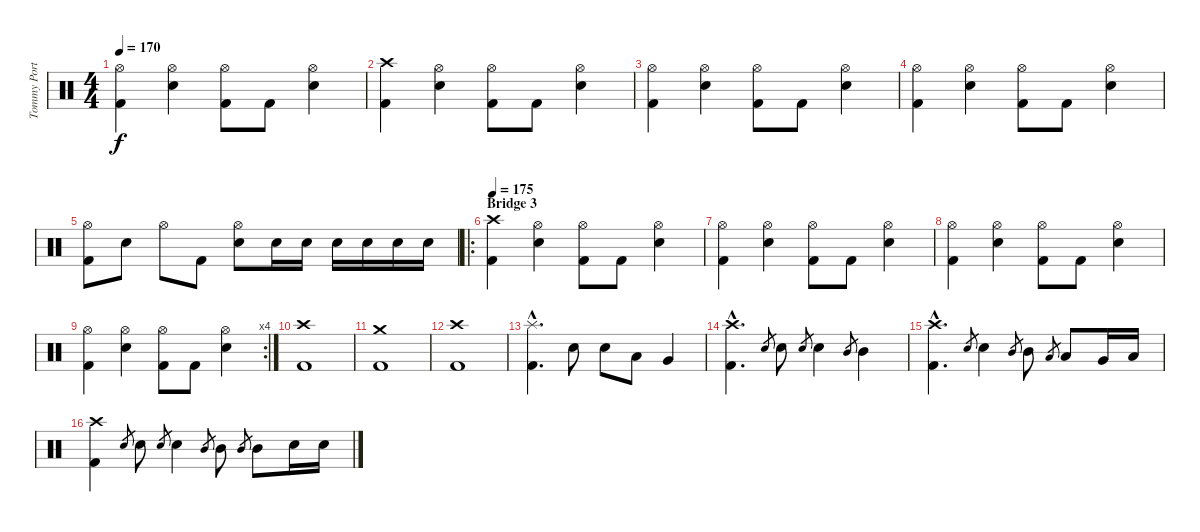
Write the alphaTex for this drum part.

\track ("Tommy Portimo" "Tommy Port") {instrument percussion}
\staff {score}
\articulation defaults
\ts (4 4)
\tempo 170
\clef neutral
\ks c
("Hi-Hat (open)" "Kick (hit) 2").4{dy f} ("Hi-Hat (open)" "Snare (hit) 2").4 ("Hi-Hat (open)" "Kick (hit) 2").8 "Kick (hit) 2".8 ("Hi-Hat (open)" "Snare (hit) 2").4 |
("Crash high (hit)" "Kick (hit) 2").4 ("Hi-Hat (open)" "Snare (hit) 2").4 ("Hi-Hat (open)" "Kick (hit) 2").8 "Kick (hit) 2".8 ("Hi-Hat (open)" "Snare (hit) 2").4 |
("Hi-Hat (open)" "Kick (hit) 2").4 ("Hi-Hat (open)" "Snare (hit) 2").4 ("Hi-Hat (open)" "Kick (hit) 2").8 "Kick (hit) 2".8 ("Hi-Hat (open)" "Snare (hit) 2").4 |
("Hi-Hat (open)" "Kick (hit) 2").4 ("Hi-Hat (open)" "Snare (hit) 2").4 ("Hi-Hat (open)" "Kick (hit) 2").8 "Kick (hit) 2".8 ("Hi-Hat (open)" "Snare (hit) 2").4 |
("Hi-Hat (open)" "Kick (hit) 2").8 "Snare (hit) 2".8 "Hi-Hat (open)".8 "Kick (hit) 2".8 ("Hi-Hat (open)" "Snare (hit) 2").8 "Snare (hit) 2".16 "Snare (hit) 2".16 "Snare (hit) 2".16 "Snare (hit) 2".16 "Snare (hit) 2".16 "Snare (hit) 2".16 |
\ro
\section ("" "Bridge 3")
\tempo 175
("Crash high (hit)" "Kick (hit) 2").4 ("Hi-Hat (open)" "Snare (hit) 2").4 ("Hi-Hat (open)" "Kick (hit) 2").8 "Kick (hit) 2".8 ("Hi-Hat (open)" "Snare (hit) 2").4 |
("Hi-Hat (open)" "Kick (hit) 2").4 ("Hi-Hat (open)" "Snare (hit) 2").4 ("Hi-Hat (open)" "Kick (hit) 2").8 "Kick (hit) 2".8 ("Hi-Hat (open)" "Snare (hit) 2").4 |
("Hi-Hat (open)" "Kick (hit) 2").4 ("Hi-Hat (open)" "Snare (hit) 2").4 ("Hi-Hat (open)" "Kick (hit) 2").8 "Kick (hit) 2".8 ("Hi-Hat (open)" "Snare (hit) 2").4 |
\rc 4
("Hi-Hat (open)" "Kick (hit) 2").4 ("Hi-Hat (open)" "Snare (hit) 2").4 ("Hi-Hat (open)" "Kick (hit) 2").8 "Kick (hit) 2".8 ("Hi-Hat (open)" "Snare (hit) 2").4 |
("Crash high (hit)" "Kick (hit) 2").1 |
("Crash medium (hit)" "Kick (hit) 2").1 |
("Crash high (hit)" "Kick (hit) 2").1 |
("Splash (hit)"{hac} "Kick (hit) 2"{hac}).4{d} "Snare (hit) 2".8 "Snare (hit) 2".8 "Low Tom (hit)".8 "Very Low Tom (hit)".4 |
("Crash high (hit)"{hac} "Kick (hit) 2"{hac}).4{d} "Snare (hit) 2".8{gr} "Snare (hit) 2".8 "Snare (hit) 2".8{gr} "Snare (hit) 2".4 "Mid Tom (hit)".8{gr} "Mid Tom (hit)".4 |
("Crash high (hit)"{hac} "Kick (hit) 2"{hac}).4{d} "Snare (hit) 2".8{gr} "Snare (hit) 2".4 "Mid Tom (hit)".8{gr} "Mid Tom (hit)".8 "Low Tom (hit)".8{gr} "Low Tom (hit)".8 "Very Low Tom (hit)".16 "Low Floor Tom (hit)".16 |
("Crash high (hit)" "Kick (hit) 2").4 "Snare (hit) 2".8{gr} "Snare (hit) 2".8 "Snare (hit) 2".8{gr} "Snare (hit) 2".4 "Mid Tom (hit)".8{gr} "Mid Tom (hit)".8 "Mid Tom (hit)".8{gr} "Mid Tom (hit)".8 "Snare (hit) 2".16 "Snare (hit) 2".16
